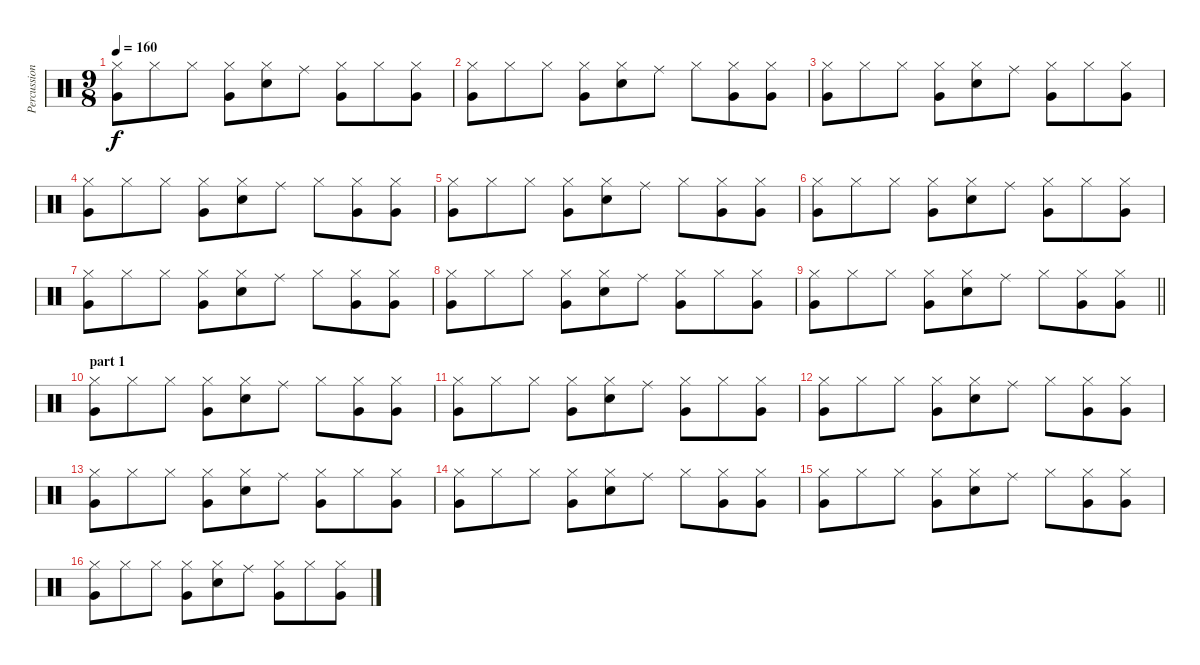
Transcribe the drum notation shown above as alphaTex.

\track ("Percussions" "Percussion") {instrument percussion}
\staff {score}
\articulation defaults
\ts (9 8)
\tempo 160
\clef neutral
\ks c
("Hi-Hat (closed)" "Very Low Tom (hit)").8{dy f} "Hi-Hat (closed)".8 "Hi-Hat (closed)".8 ("Hi-Hat (closed)" "Very Low Tom (hit)").8 ("Hi-Hat (closed)" "Snare (hit) 2").8 "Ride (middle)".8 ("Hi-Hat (closed)" "Very Low Tom (hit)").8 "Hi-Hat (closed)".8 ("Hi-Hat (closed)" "Very Low Tom (hit)").8 |
("Hi-Hat (closed)" "Very Low Tom (hit)").8 "Hi-Hat (closed)".8 "Hi-Hat (closed)".8 ("Hi-Hat (closed)" "Very Low Tom (hit)").8 ("Hi-Hat (closed)" "Snare (hit) 2").8 "Ride (middle)".8 "Hi-Hat (closed)".8 ("Hi-Hat (closed)" "Very Low Tom (hit)").8 ("Hi-Hat (closed)" "Very Low Tom (hit)").8 |
("Hi-Hat (closed)" "Very Low Tom (hit)").8 "Hi-Hat (closed)".8 "Hi-Hat (closed)".8 ("Hi-Hat (closed)" "Very Low Tom (hit)").8 ("Hi-Hat (closed)" "Snare (hit) 2").8 "Ride (middle)".8 ("Hi-Hat (closed)" "Very Low Tom (hit)").8 "Hi-Hat (closed)".8 ("Hi-Hat (closed)" "Very Low Tom (hit)").8 |
("Hi-Hat (closed)" "Very Low Tom (hit)").8 "Hi-Hat (closed)".8 "Hi-Hat (closed)".8 ("Hi-Hat (closed)" "Very Low Tom (hit)").8 ("Hi-Hat (closed)" "Snare (hit) 2").8 "Ride (middle)".8 "Hi-Hat (closed)".8 ("Hi-Hat (closed)" "Very Low Tom (hit)").8 ("Hi-Hat (closed)" "Very Low Tom (hit)").8 |
("Hi-Hat (closed)" "Very Low Tom (hit)").8 "Hi-Hat (closed)".8 "Hi-Hat (closed)".8 ("Hi-Hat (closed)" "Very Low Tom (hit)").8 ("Hi-Hat (closed)" "Snare (hit) 2").8 "Ride (middle)".8 "Hi-Hat (closed)".8 ("Hi-Hat (closed)" "Very Low Tom (hit)").8 ("Hi-Hat (closed)" "Very Low Tom (hit)").8 |
("Hi-Hat (closed)" "Very Low Tom (hit)").8 "Hi-Hat (closed)".8 "Hi-Hat (closed)".8 ("Hi-Hat (closed)" "Very Low Tom (hit)").8 ("Hi-Hat (closed)" "Snare (hit) 2").8 "Ride (middle)".8 ("Hi-Hat (closed)" "Very Low Tom (hit)").8 "Hi-Hat (closed)".8 ("Hi-Hat (closed)" "Very Low Tom (hit)").8 |
("Hi-Hat (closed)" "Very Low Tom (hit)").8 "Hi-Hat (closed)".8 "Hi-Hat (closed)".8 ("Hi-Hat (closed)" "Very Low Tom (hit)").8 ("Hi-Hat (closed)" "Snare (hit) 2").8 "Ride (middle)".8 "Hi-Hat (closed)".8 ("Hi-Hat (closed)" "Very Low Tom (hit)").8 ("Hi-Hat (closed)" "Very Low Tom (hit)").8 |
("Hi-Hat (closed)" "Very Low Tom (hit)").8 "Hi-Hat (closed)".8 "Hi-Hat (closed)".8 ("Hi-Hat (closed)" "Very Low Tom (hit)").8 ("Hi-Hat (closed)" "Snare (hit) 2").8 "Ride (middle)".8 ("Hi-Hat (closed)" "Very Low Tom (hit)").8 "Hi-Hat (closed)".8 ("Hi-Hat (closed)" "Very Low Tom (hit)").8 |
\barLineRight lightlight
("Hi-Hat (closed)" "Very Low Tom (hit)").8 "Hi-Hat (closed)".8 "Hi-Hat (closed)".8 ("Hi-Hat (closed)" "Very Low Tom (hit)").8 ("Hi-Hat (closed)" "Snare (hit) 2").8 "Ride (middle)".8 "Hi-Hat (closed)".8 ("Hi-Hat (closed)" "Very Low Tom (hit)").8 ("Hi-Hat (closed)" "Very Low Tom (hit)").8 |
\section ("" "part 1")
("Hi-Hat (closed)" "Very Low Tom (hit)").8 "Hi-Hat (closed)".8 "Hi-Hat (closed)".8 ("Hi-Hat (closed)" "Very Low Tom (hit)").8 ("Hi-Hat (closed)" "Snare (hit) 2").8 "Ride (middle)".8 "Hi-Hat (closed)".8 ("Hi-Hat (closed)" "Very Low Tom (hit)").8 ("Hi-Hat (closed)" "Very Low Tom (hit)").8 |
("Hi-Hat (closed)" "Very Low Tom (hit)").8 "Hi-Hat (closed)".8 "Hi-Hat (closed)".8 ("Hi-Hat (closed)" "Very Low Tom (hit)").8 ("Hi-Hat (closed)" "Snare (hit) 2").8 "Ride (middle)".8 ("Hi-Hat (closed)" "Very Low Tom (hit)").8 "Hi-Hat (closed)".8 ("Hi-Hat (closed)" "Very Low Tom (hit)").8 |
("Hi-Hat (closed)" "Very Low Tom (hit)").8 "Hi-Hat (closed)".8 "Hi-Hat (closed)".8 ("Hi-Hat (closed)" "Very Low Tom (hit)").8 ("Hi-Hat (closed)" "Snare (hit) 2").8 "Ride (middle)".8 "Hi-Hat (closed)".8 ("Hi-Hat (closed)" "Very Low Tom (hit)").8 ("Hi-Hat (closed)" "Very Low Tom (hit)").8 |
("Hi-Hat (closed)" "Very Low Tom (hit)").8 "Hi-Hat (closed)".8 "Hi-Hat (closed)".8 ("Hi-Hat (closed)" "Very Low Tom (hit)").8 ("Hi-Hat (closed)" "Snare (hit) 2").8 "Ride (middle)".8 ("Hi-Hat (closed)" "Very Low Tom (hit)").8 "Hi-Hat (closed)".8 ("Hi-Hat (closed)" "Very Low Tom (hit)").8 |
("Hi-Hat (closed)" "Very Low Tom (hit)").8 "Hi-Hat (closed)".8 "Hi-Hat (closed)".8 ("Hi-Hat (closed)" "Very Low Tom (hit)").8 ("Hi-Hat (closed)" "Snare (hit) 2").8 "Ride (middle)".8 "Hi-Hat (closed)".8 ("Hi-Hat (closed)" "Very Low Tom (hit)").8 ("Hi-Hat (closed)" "Very Low Tom (hit)").8 |
("Hi-Hat (closed)" "Very Low Tom (hit)").8 "Hi-Hat (closed)".8 "Hi-Hat (closed)".8 ("Hi-Hat (closed)" "Very Low Tom (hit)").8 ("Hi-Hat (closed)" "Snare (hit) 2").8 "Ride (middle)".8 "Hi-Hat (closed)".8 ("Hi-Hat (closed)" "Very Low Tom (hit)").8 ("Hi-Hat (closed)" "Very Low Tom (hit)").8 |
("Hi-Hat (closed)" "Very Low Tom (hit)").8 "Hi-Hat (closed)".8 "Hi-Hat (closed)".8 ("Hi-Hat (closed)" "Very Low Tom (hit)").8 ("Hi-Hat (closed)" "Snare (hit) 2").8 "Ride (middle)".8 ("Hi-Hat (closed)" "Very Low Tom (hit)").8 "Hi-Hat (closed)".8 ("Hi-Hat (closed)" "Very Low Tom (hit)").8
